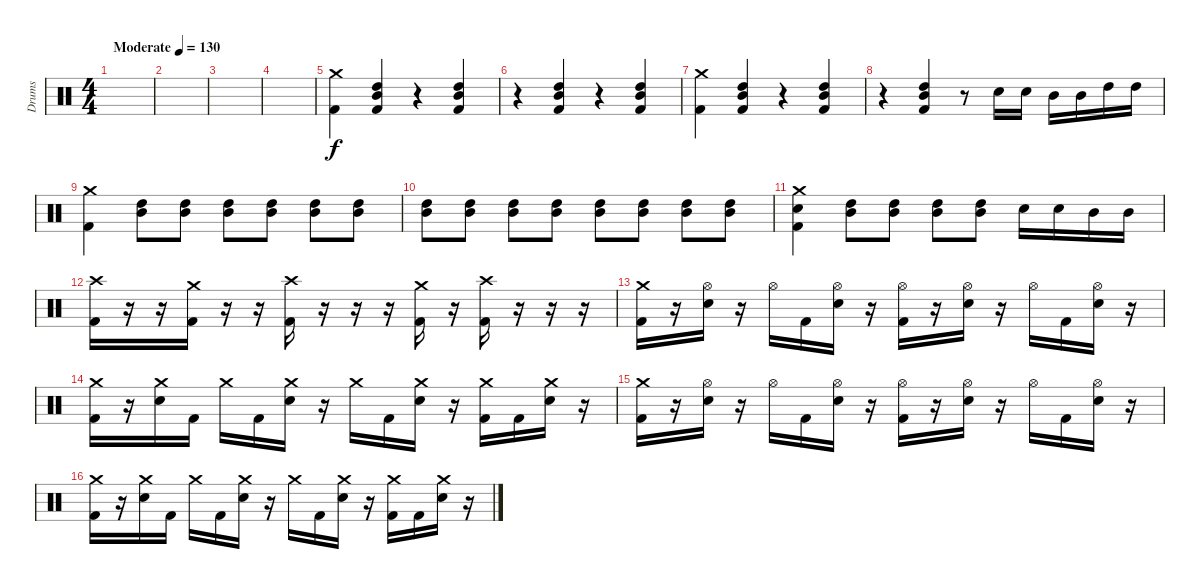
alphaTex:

\track ("Drums" "Drums") {instrument percussion}
\staff {score}
\articulation defaults
\ts (4 4)
\tempo (130 "Moderate")
\clef neutral
\ks c
|
|
|
|
("Crash medium (hit)" "Kick (hit) 2").4 ("High Tom (hit)" "Mid Tom (hit)" "Kick (hit) 2").4 r.4 ("High Tom (hit)" "Mid Tom (hit)" "Kick (hit) 2").4 |
r.4 ("High Tom (hit)" "Mid Tom (hit)" "Kick (hit) 2").4 r.4 ("High Tom (hit)" "Mid Tom (hit)" "Kick (hit) 2").4 |
("Crash medium (hit)" "Kick (hit) 2").4 ("High Tom (hit)" "Mid Tom (hit)" "Kick (hit) 2").4 r.4 ("High Tom (hit)" "Mid Tom (hit)" "Kick (hit) 2").4 |
r.4 ("High Tom (hit)" "Mid Tom (hit)" "Kick (hit) 2").4 r.8 "Electric Snare (hit)".16 "Electric Snare (hit)".16 "Mid Tom (hit)".16 "Mid Tom (hit)".16 "High Tom (hit)".16 "High Tom (hit)".16 |
("Crash medium (hit)" "Kick (hit) 2").4 ("High Tom (hit)" "Mid Tom (hit)").8 ("High Tom (hit)" "Mid Tom (hit)").8 ("High Tom (hit)" "Mid Tom (hit)").8 ("High Tom (hit)" "Mid Tom (hit)").8 ("High Tom (hit)" "Mid Tom (hit)").8 ("High Tom (hit)" "Mid Tom (hit)").8 |
("High Tom (hit)" "Mid Tom (hit)").8 ("High Tom (hit)" "Mid Tom (hit)").8 ("High Tom (hit)" "Mid Tom (hit)").8 ("High Tom (hit)" "Mid Tom (hit)").8 ("High Tom (hit)" "Mid Tom (hit)").8 ("High Tom (hit)" "Mid Tom (hit)").8 ("High Tom (hit)" "Mid Tom (hit)").8 ("High Tom (hit)" "Mid Tom (hit)").8 |
("Crash medium (hit)" "Electric Snare (hit)" "Kick (hit) 2").4 ("High Tom (hit)" "Mid Tom (hit)").8 ("High Tom (hit)" "Mid Tom (hit)").8 ("High Tom (hit)" "Mid Tom (hit)").8 ("High Tom (hit)" "Mid Tom (hit)").8 "Electric Snare (hit)".16 "Electric Snare (hit)".16 "Mid Tom (hit)".16 "Mid Tom (hit)".16 |
("Crash high (hit)" "Kick (hit) 2").16 r.16 r.16 ("Crash medium (hit)" "Kick (hit) 2").16 r.16 r.16 ("Crash high (hit)" "Kick (hit) 2").16 r.16 r.16 r.16 ("Crash medium (hit)" "Kick (hit) 2").16 r.16 ("Crash high (hit)" "Kick (hit) 2").16 r.16 r.16 r.16 |
("Crash medium (hit)" "Kick (hit) 2").16 r.16 ("Hi-Hat (open)" "Electric Snare (hit)").16 r.16 "Hi-Hat (open)".16 "Kick (hit) 2".16 ("Hi-Hat (open)" "Electric Snare (hit)").16 r.16 ("Hi-Hat (open)" "Kick (hit) 2").16 r.16 ("Hi-Hat (open)" "Electric Snare (hit)").16 r.16 "Hi-Hat (open)".16 "Kick (hit) 2".16 ("Hi-Hat (open)" "Electric Snare (hit)").16 r.16 |
("Crash medium (hit)" "Kick (hit) 2").16 r.16 ("Crash medium (hit)" "Electric Snare (hit)").16 "Kick (hit) 2".16 "Crash medium (hit)".16 "Kick (hit) 2".16 ("Crash medium (hit)" "Electric Snare (hit)").16 r.16 "Crash medium (hit)".16 "Kick (hit) 2".16 ("Crash medium (hit)" "Electric Snare (hit)").16 r.16 ("Crash medium (hit)" "Kick (hit) 2").16 "Kick (hit) 2".16 ("Crash medium (hit)" "Electric Snare (hit)").16 r.16 |
("Crash medium (hit)" "Kick (hit) 2").16 r.16 ("Hi-Hat (open)" "Electric Snare (hit)").16 r.16 "Hi-Hat (open)".16 "Kick (hit) 2".16 ("Hi-Hat (open)" "Electric Snare (hit)").16 r.16 ("Hi-Hat (open)" "Kick (hit) 2").16 r.16 ("Hi-Hat (open)" "Electric Snare (hit)").16 r.16 "Hi-Hat (open)".16 "Kick (hit) 2".16 ("Hi-Hat (open)" "Electric Snare (hit)").16 r.16 |
("Crash medium (hit)" "Kick (hit) 2").16 r.16 ("Crash medium (hit)" "Electric Snare (hit)").16 "Kick (hit) 2".16 "Crash medium (hit)".16 "Kick (hit) 2".16 ("Crash medium (hit)" "Electric Snare (hit)").16 r.16 "Crash medium (hit)".16 "Kick (hit) 2".16 ("Crash medium (hit)" "Electric Snare (hit)").16 r.16 ("Crash medium (hit)" "Kick (hit) 2").16 "Kick (hit) 2".16 ("Crash medium (hit)" "Electric Snare (hit)").16 r.16
